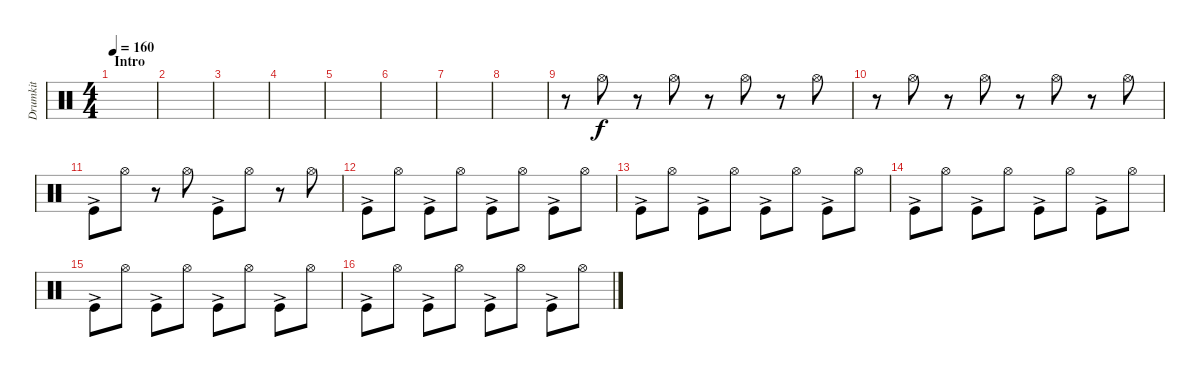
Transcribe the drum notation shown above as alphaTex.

\track ("Drumkit" "Drumkit") {instrument percussion}
\staff {score}
\articulation defaults
\ts (4 4)
\section ("" "Intro")
\tempo 160
\clef neutral
\ks c
|
|
|
|
|
|
|
|
r.8 "Hi-Hat (open)".8 r.8 "Hi-Hat (open)".8 r.8 "Hi-Hat (open)".8 r.8 "Hi-Hat (open)".8 |
r.8 "Hi-Hat (open)".8 r.8 "Hi-Hat (open)".8 r.8 "Hi-Hat (open)".8 r.8 "Hi-Hat (open)".8 |
"Kick (hit)"{ac}.8 "Hi-Hat (open)".8 r.8 "Hi-Hat (open)".8 "Kick (hit)"{ac}.8 "Hi-Hat (open)".8 r.8 "Hi-Hat (open)".8 |
"Kick (hit)"{ac}.8 "Hi-Hat (open)".8 "Kick (hit)"{ac}.8 "Hi-Hat (open)".8 "Kick (hit)"{ac}.8 "Hi-Hat (open)".8 "Kick (hit)"{ac}.8 "Hi-Hat (open)".8 |
"Kick (hit)"{ac}.8 "Hi-Hat (open)".8 "Kick (hit)"{ac}.8 "Hi-Hat (open)".8 "Kick (hit)"{ac}.8 "Hi-Hat (open)".8 "Kick (hit)"{ac}.8 "Hi-Hat (open)".8 |
"Kick (hit)"{ac}.8 "Hi-Hat (open)".8 "Kick (hit)"{ac}.8 "Hi-Hat (open)".8 "Kick (hit)"{ac}.8 "Hi-Hat (open)".8 "Kick (hit)"{ac}.8 "Hi-Hat (open)".8 |
"Kick (hit)"{ac}.8 "Hi-Hat (open)".8 "Kick (hit)"{ac}.8 "Hi-Hat (open)".8 "Kick (hit)"{ac}.8 "Hi-Hat (open)".8 "Kick (hit)"{ac}.8 "Hi-Hat (open)".8 |
"Kick (hit)"{ac}.8 "Hi-Hat (open)".8 "Kick (hit)"{ac}.8 "Hi-Hat (open)".8 "Kick (hit)"{ac}.8 "Hi-Hat (open)".8 "Kick (hit)"{ac}.8 "Hi-Hat (open)".8
